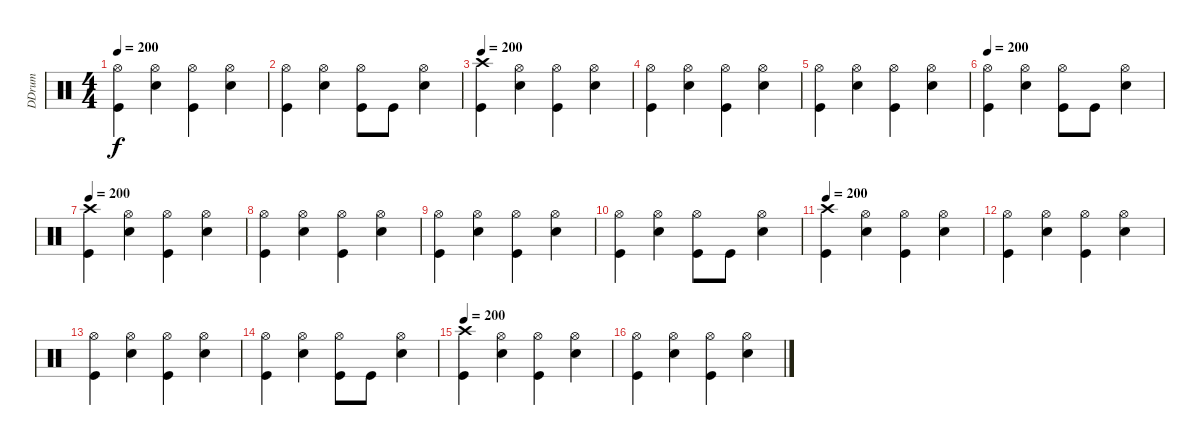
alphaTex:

\track ("DDrum" "DDrum") {instrument percussion}
\staff {score}
\articulation defaults
\ts (4 4)
\tempo 200
\clef neutral
\ks c
("Hi-Hat (open)" "Kick (hit)").4{dy f} ("Hi-Hat (open)" "Electric Snare (hit)").4 ("Hi-Hat (open)" "Kick (hit)").4 ("Hi-Hat (open)" "Electric Snare (hit)").4 |
("Hi-Hat (open)" "Kick (hit)").4 ("Hi-Hat (open)" "Electric Snare (hit)").4 ("Hi-Hat (open)" "Kick (hit)").8 "Kick (hit)".8 ("Hi-Hat (open)" "Electric Snare (hit)").4 |
\tempo 200
("Crash high (hit)" "Kick (hit)").4 ("Hi-Hat (open)" "Electric Snare (hit)").4 ("Hi-Hat (open)" "Kick (hit)").4 ("Hi-Hat (open)" "Electric Snare (hit)").4 |
("Hi-Hat (open)" "Kick (hit)").4 ("Hi-Hat (open)" "Electric Snare (hit)").4 ("Hi-Hat (open)" "Kick (hit)").4 ("Hi-Hat (open)" "Electric Snare (hit)").4 |
("Hi-Hat (open)" "Kick (hit)").4 ("Hi-Hat (open)" "Electric Snare (hit)").4 ("Hi-Hat (open)" "Kick (hit)").4 ("Hi-Hat (open)" "Electric Snare (hit)").4 |
\tempo 200
("Hi-Hat (open)" "Kick (hit)").4 ("Hi-Hat (open)" "Electric Snare (hit)").4 ("Hi-Hat (open)" "Kick (hit)").8 "Kick (hit)".8 ("Hi-Hat (open)" "Electric Snare (hit)").4 |
\tempo 200
("Crash high (hit)" "Kick (hit)").4 ("Hi-Hat (open)" "Electric Snare (hit)").4 ("Hi-Hat (open)" "Kick (hit)").4 ("Hi-Hat (open)" "Electric Snare (hit)").4 |
("Hi-Hat (open)" "Kick (hit)").4 ("Hi-Hat (open)" "Electric Snare (hit)").4 ("Hi-Hat (open)" "Kick (hit)").4 ("Hi-Hat (open)" "Electric Snare (hit)").4 |
("Hi-Hat (open)" "Kick (hit)").4 ("Hi-Hat (open)" "Electric Snare (hit)").4 ("Hi-Hat (open)" "Kick (hit)").4 ("Hi-Hat (open)" "Electric Snare (hit)").4 |
("Hi-Hat (open)" "Kick (hit)").4 ("Hi-Hat (open)" "Electric Snare (hit)").4 ("Hi-Hat (open)" "Kick (hit)").8 "Kick (hit)".8 ("Hi-Hat (open)" "Electric Snare (hit)").4 |
\tempo 200
("Crash high (hit)" "Kick (hit)").4 ("Hi-Hat (open)" "Electric Snare (hit)").4 ("Hi-Hat (open)" "Kick (hit)").4 ("Hi-Hat (open)" "Electric Snare (hit)").4 |
("Hi-Hat (open)" "Kick (hit)").4 ("Hi-Hat (open)" "Electric Snare (hit)").4 ("Hi-Hat (open)" "Kick (hit)").4 ("Hi-Hat (open)" "Electric Snare (hit)").4 |
("Hi-Hat (open)" "Kick (hit)").4 ("Hi-Hat (open)" "Electric Snare (hit)").4 ("Hi-Hat (open)" "Kick (hit)").4 ("Hi-Hat (open)" "Electric Snare (hit)").4 |
("Hi-Hat (open)" "Kick (hit)").4 ("Hi-Hat (open)" "Electric Snare (hit)").4 ("Hi-Hat (open)" "Kick (hit)").8 "Kick (hit)".8 ("Hi-Hat (open)" "Electric Snare (hit)").4 |
\tempo 200
("Crash high (hit)" "Kick (hit)").4 ("Hi-Hat (open)" "Electric Snare (hit)").4 ("Hi-Hat (open)" "Kick (hit)").4 ("Hi-Hat (open)" "Electric Snare (hit)").4 |
("Hi-Hat (open)" "Kick (hit)").4 ("Hi-Hat (open)" "Electric Snare (hit)").4 ("Hi-Hat (open)" "Kick (hit)").4 ("Hi-Hat (open)" "Electric Snare (hit)").4
